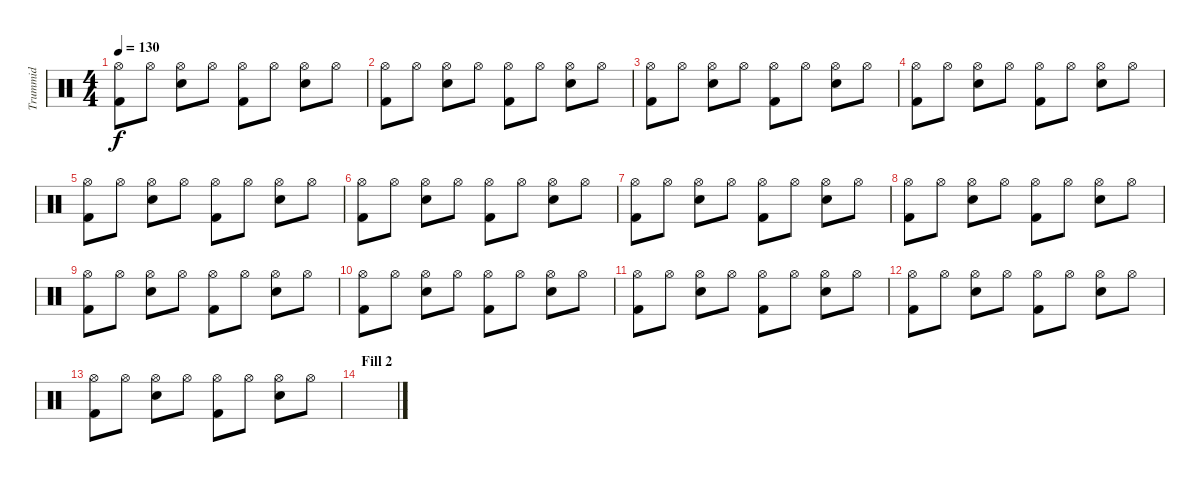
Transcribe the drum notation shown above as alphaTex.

\track ("Trummid" "Trummid") {instrument percussion}
\staff {score}
\articulation defaults
\ts (4 4)
\tempo 130
\clef neutral
\ks c
("Hi-Hat (open)" "Kick (hit) 2").8{dy f} "Hi-Hat (open)".8 ("Hi-Hat (open)" "Snare (hit) 2").8 "Hi-Hat (open)".8 ("Hi-Hat (open)" "Kick (hit) 2").8 "Hi-Hat (open)".8 ("Hi-Hat (open)" "Snare (hit) 2").8 "Hi-Hat (open)".8 |
("Hi-Hat (open)" "Kick (hit) 2").8 "Hi-Hat (open)".8 ("Hi-Hat (open)" "Snare (hit) 2").8 "Hi-Hat (open)".8 ("Hi-Hat (open)" "Kick (hit) 2").8 "Hi-Hat (open)".8 ("Hi-Hat (open)" "Snare (hit) 2").8 "Hi-Hat (open)".8 |
("Hi-Hat (open)" "Kick (hit) 2").8 "Hi-Hat (open)".8 ("Hi-Hat (open)" "Snare (hit) 2").8 "Hi-Hat (open)".8 ("Hi-Hat (open)" "Kick (hit) 2").8 "Hi-Hat (open)".8 ("Hi-Hat (open)" "Snare (hit) 2").8 "Hi-Hat (open)".8 |
("Hi-Hat (open)" "Kick (hit) 2").8 "Hi-Hat (open)".8 ("Hi-Hat (open)" "Snare (hit) 2").8 "Hi-Hat (open)".8 ("Hi-Hat (open)" "Kick (hit) 2").8 "Hi-Hat (open)".8 ("Hi-Hat (open)" "Snare (hit) 2").8 "Hi-Hat (open)".8 |
("Hi-Hat (open)" "Kick (hit) 2").8 "Hi-Hat (open)".8 ("Hi-Hat (open)" "Snare (hit) 2").8 "Hi-Hat (open)".8 ("Hi-Hat (open)" "Kick (hit) 2").8 "Hi-Hat (open)".8 ("Hi-Hat (open)" "Snare (hit) 2").8 "Hi-Hat (open)".8 |
("Hi-Hat (open)" "Kick (hit) 2").8 "Hi-Hat (open)".8 ("Hi-Hat (open)" "Snare (hit) 2").8 "Hi-Hat (open)".8 ("Hi-Hat (open)" "Kick (hit) 2").8 "Hi-Hat (open)".8 ("Hi-Hat (open)" "Snare (hit) 2").8 "Hi-Hat (open)".8 |
("Hi-Hat (open)" "Kick (hit) 2").8 "Hi-Hat (open)".8 ("Hi-Hat (open)" "Snare (hit) 2").8 "Hi-Hat (open)".8 ("Hi-Hat (open)" "Kick (hit) 2").8 "Hi-Hat (open)".8 ("Hi-Hat (open)" "Snare (hit) 2").8 "Hi-Hat (open)".8 |
("Hi-Hat (open)" "Kick (hit) 2").8 "Hi-Hat (open)".8 ("Hi-Hat (open)" "Snare (hit) 2").8 "Hi-Hat (open)".8 ("Hi-Hat (open)" "Kick (hit) 2").8 "Hi-Hat (open)".8 ("Hi-Hat (open)" "Snare (hit) 2").8 "Hi-Hat (open)".8 |
("Hi-Hat (open)" "Kick (hit) 2").8 "Hi-Hat (open)".8 ("Hi-Hat (open)" "Snare (hit) 2").8 "Hi-Hat (open)".8 ("Hi-Hat (open)" "Kick (hit) 2").8 "Hi-Hat (open)".8 ("Hi-Hat (open)" "Snare (hit) 2").8 "Hi-Hat (open)".8 |
("Hi-Hat (open)" "Kick (hit) 2").8 "Hi-Hat (open)".8 ("Hi-Hat (open)" "Snare (hit) 2").8 "Hi-Hat (open)".8 ("Hi-Hat (open)" "Kick (hit) 2").8 "Hi-Hat (open)".8 ("Hi-Hat (open)" "Snare (hit) 2").8 "Hi-Hat (open)".8 |
("Hi-Hat (open)" "Kick (hit) 2").8 "Hi-Hat (open)".8 ("Hi-Hat (open)" "Snare (hit) 2").8 "Hi-Hat (open)".8 ("Hi-Hat (open)" "Kick (hit) 2").8 "Hi-Hat (open)".8 ("Hi-Hat (open)" "Snare (hit) 2").8 "Hi-Hat (open)".8 |
("Hi-Hat (open)" "Kick (hit) 2").8 "Hi-Hat (open)".8 ("Hi-Hat (open)" "Snare (hit) 2").8 "Hi-Hat (open)".8 ("Hi-Hat (open)" "Kick (hit) 2").8 "Hi-Hat (open)".8 ("Hi-Hat (open)" "Snare (hit) 2").8 "Hi-Hat (open)".8 |
("Hi-Hat (open)" "Kick (hit) 2").8 "Hi-Hat (open)".8 ("Hi-Hat (open)" "Snare (hit) 2").8 "Hi-Hat (open)".8 ("Hi-Hat (open)" "Kick (hit) 2").8 "Hi-Hat (open)".8 ("Hi-Hat (open)" "Snare (hit) 2").8 "Hi-Hat (open)".8 |
\section ("" "Fill 2")
